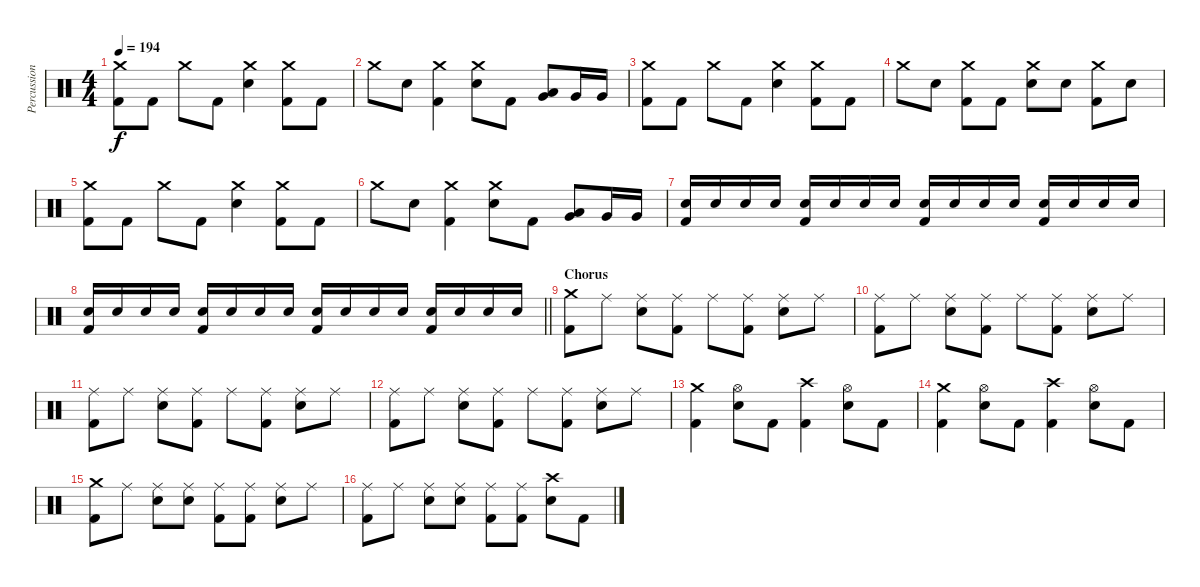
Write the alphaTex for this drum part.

\track ("Percussions" "Percussion") {instrument percussion}
\staff {score}
\articulation defaults
\ts (4 4)
\tempo 194
\clef neutral
\ks c
("Crash medium (hit)" "Kick (hit) 2").8{dy f} "Kick (hit) 2".8 "Crash medium (hit)".8 "Kick (hit) 2".8 ("Crash medium (hit)" "Electric Snare (hit)").4 ("Crash medium (hit)" "Kick (hit) 2").8 "Kick (hit) 2".8 |
"Crash medium (hit)".8 "Electric Snare (hit)".8 ("Crash medium (hit)" "Kick (hit) 2").4 ("Crash medium (hit)" "Electric Snare (hit)").8 "Kick (hit) 2".8 ("Low Tom (hit)" "Very Low Tom (hit)").8 "Very Low Tom (hit)".16 "Very Low Tom (hit)".16 |
("Crash medium (hit)" "Kick (hit) 2").8 "Kick (hit) 2".8 "Crash medium (hit)".8 "Kick (hit) 2".8 ("Crash medium (hit)" "Electric Snare (hit)").4 ("Crash medium (hit)" "Kick (hit) 2").8 "Kick (hit) 2".8 |
"Crash medium (hit)".8 "Electric Snare (hit)".8 ("Crash medium (hit)" "Kick (hit) 2").8 "Kick (hit) 2".8 ("Crash medium (hit)" "Electric Snare (hit)").8 "Electric Snare (hit)".8 ("Crash medium (hit)" "Kick (hit) 2").8 "Electric Snare (hit)".8 |
("Crash medium (hit)" "Kick (hit) 2").8 "Kick (hit) 2".8 "Crash medium (hit)".8 "Kick (hit) 2".8 ("Crash medium (hit)" "Electric Snare (hit)").4 ("Crash medium (hit)" "Kick (hit) 2").8 "Kick (hit) 2".8 |
"Crash medium (hit)".8 "Electric Snare (hit)".8 ("Crash medium (hit)" "Kick (hit) 2").4 ("Crash medium (hit)" "Electric Snare (hit)").8 "Kick (hit) 2".8 ("Low Tom (hit)" "Very Low Tom (hit)").8 "Very Low Tom (hit)".16 "Very Low Tom (hit)".16 |
("Electric Snare (hit)" "Kick (hit) 2").16{volume 8} "Electric Snare (hit)".16{volume 12} "Electric Snare (hit)".16 "Electric Snare (hit)".16 ("Electric Snare (hit)" "Kick (hit) 2").16 "Electric Snare (hit)".16 "Electric Snare (hit)".16 "Electric Snare (hit)".16 ("Electric Snare (hit)" "Kick (hit) 2").16 "Electric Snare (hit)".16 "Electric Snare (hit)".16 "Electric Snare (hit)".16 ("Electric Snare (hit)" "Kick (hit) 2").16 "Electric Snare (hit)".16 "Electric Snare (hit)".16 "Electric Snare (hit)".16 |
\barLineRight lightlight
("Electric Snare (hit)" "Kick (hit) 2").16 "Electric Snare (hit)".16 "Electric Snare (hit)".16 "Electric Snare (hit)".16 ("Electric Snare (hit)" "Kick (hit) 2").16 "Electric Snare (hit)".16 "Electric Snare (hit)".16 "Electric Snare (hit)".16 ("Electric Snare (hit)" "Kick (hit) 2").16 "Electric Snare (hit)".16 "Electric Snare (hit)".16 "Electric Snare (hit)".16 ("Electric Snare (hit)" "Kick (hit) 2").16 "Electric Snare (hit)".16 "Electric Snare (hit)".16 "Electric Snare (hit)".16 |
\section ("" "Chorus")
("Crash medium (hit)" "Kick (hit) 2").8 "Ride (middle)".8 ("Ride (middle)" "Electric Snare (hit)").8 ("Ride (middle)" "Kick (hit) 2").8 "Ride (middle)".8 ("Ride (middle)" "Kick (hit) 2").8 ("Ride (middle)" "Electric Snare (hit)").8 "Ride (middle)".8 |
("Ride (middle)" "Kick (hit) 2").8 "Ride (middle)".8 ("Ride (middle)" "Electric Snare (hit)").8 ("Ride (middle)" "Kick (hit) 2").8 "Ride (middle)".8 ("Ride (middle)" "Kick (hit) 2").8 ("Ride (middle)" "Electric Snare (hit)").8 "Ride (middle)".8 |
("Ride (middle)" "Kick (hit) 2").8 "Ride (middle)".8 ("Ride (middle)" "Electric Snare (hit)").8 ("Ride (middle)" "Kick (hit) 2").8 "Ride (middle)".8 ("Ride (middle)" "Kick (hit) 2").8 ("Ride (middle)" "Electric Snare (hit)").8 "Ride (middle)".8 |
("Ride (middle)" "Kick (hit) 2").8 "Ride (middle)".8 ("Ride (middle)" "Electric Snare (hit)").8 ("Ride (middle)" "Kick (hit) 2").8 "Ride (middle)".8 ("Ride (middle)" "Kick (hit) 2").8 ("Ride (middle)" "Electric Snare (hit)").8 "Ride (middle)".8 |
("Crash medium (hit)" "Kick (hit) 2").4 ("Hi-Hat (open)" "Electric Snare (hit)").8 "Kick (hit) 2".8 ("Crash high (hit)" "Kick (hit) 2").4 ("Hi-Hat (open)" "Electric Snare (hit)").8 "Kick (hit) 2".8 |
("Crash medium (hit)" "Kick (hit) 2").4 ("Hi-Hat (open)" "Electric Snare (hit)").8 "Kick (hit) 2".8 ("Crash high (hit)" "Kick (hit) 2").4 ("Hi-Hat (open)" "Electric Snare (hit)").8 "Kick (hit) 2".8 |
("Crash medium (hit)" "Kick (hit) 2").8 "Ride (middle)".8 ("Ride (middle)" "Electric Snare (hit)").8 ("Ride (middle)" "Electric Snare (hit)").8 ("Ride (middle)" "Kick (hit) 2").8 ("Ride (middle)" "Kick (hit) 2").8 ("Ride (middle)" "Electric Snare (hit)").8 "Ride (middle)".8 |
("Ride (middle)" "Kick (hit) 2").8 "Ride (middle)".8 ("Ride (middle)" "Electric Snare (hit)").8 ("Ride (middle)" "Electric Snare (hit)").8 ("Ride (middle)" "Kick (hit) 2").8 ("Ride (middle)" "Kick (hit) 2").8 ("Crash high (hit)" "Electric Snare (hit)").8 "Kick (hit) 2".8
